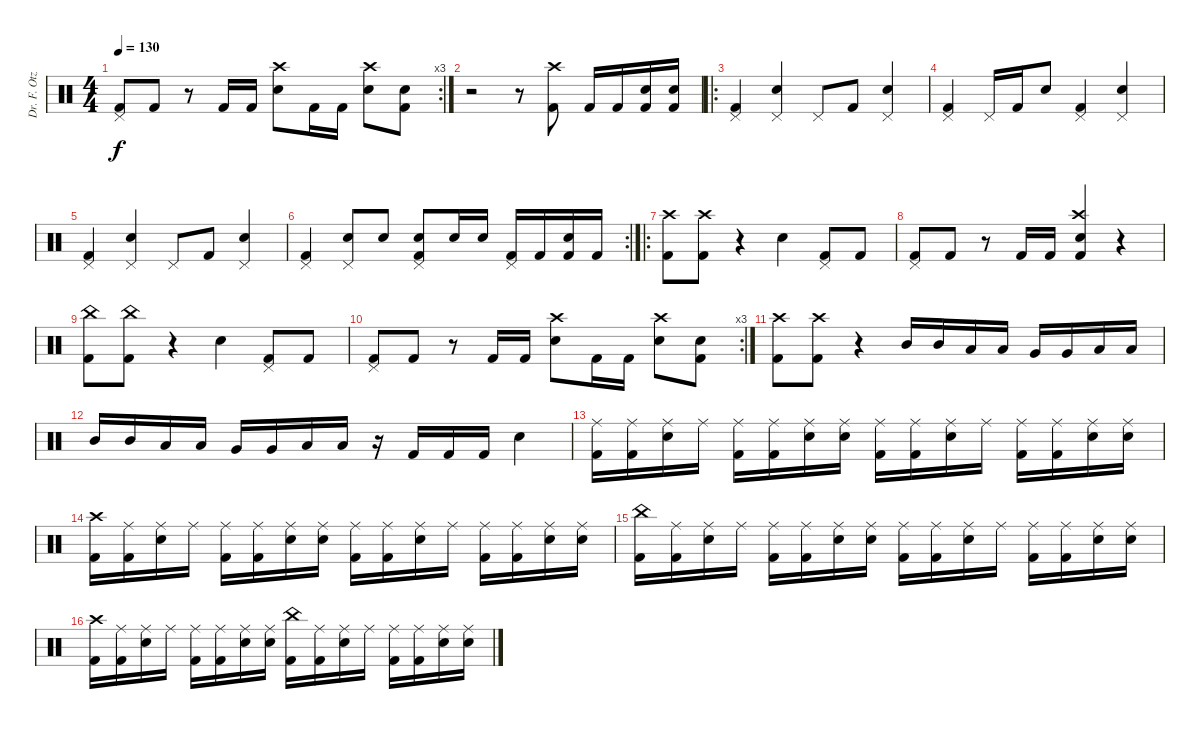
\track ("Dr. F. Otze" "Dr. F. Otz") {instrument percussion}
\staff {score}
\articulation defaults
\rc 3
\ts (4 4)
\tempo 130
\clef neutral
\ks c
("Pedal Hi-Hat (hit)" "Kick (hit) 2").8{dy f} "Kick (hit) 2".8 r.8 "Kick (hit) 2".16 "Kick (hit) 2".16 ("Crash high (hit)" "Electric Snare (hit)").8 "Kick (hit) 2".16 "Kick (hit) 2".16 ("Crash high (hit)" "Electric Snare (hit)").8 ("Electric Snare (hit)" "Kick (hit) 2").8 |
r.2 r.8 ("Crash high (hit)" "Kick (hit) 2").8 "Kick (hit) 2".16 "Kick (hit) 2".16 ("Snare (hit) 2" "Kick (hit) 2").16 ("Snare (hit) 2" "Kick (hit) 2").16 |
\ro
("Pedal Hi-Hat (hit)" "Kick (hit) 2").4 ("Pedal Hi-Hat (hit)" "Snare (hit) 2").4 "Pedal Hi-Hat (hit)".8 "Kick (hit) 2".8 ("Pedal Hi-Hat (hit)" "Snare (hit) 2").4 |
("Pedal Hi-Hat (hit)" "Kick (hit) 2").4 "Pedal Hi-Hat (hit)".16 "Kick (hit) 2".16 "Snare (hit) 2".8 ("Pedal Hi-Hat (hit)" "Kick (hit) 2").4 ("Pedal Hi-Hat (hit)" "Snare (hit) 2").4 |
("Pedal Hi-Hat (hit)" "Kick (hit) 2").4 ("Pedal Hi-Hat (hit)" "Snare (hit) 2").4 "Pedal Hi-Hat (hit)".8 "Kick (hit) 2".8 ("Pedal Hi-Hat (hit)" "Snare (hit) 2").4 |
\rc 2
("Pedal Hi-Hat (hit)" "Kick (hit) 2").4 ("Pedal Hi-Hat (hit)" "Snare (hit) 2").8 "Snare (hit) 2".8 ("Pedal Hi-Hat (hit)" "Snare (hit) 2" "Kick (hit) 2").8 "Snare (hit) 2".16 "Snare (hit) 2".16 ("Pedal Hi-Hat (hit)" "Kick (hit) 2").16 "Kick (hit) 2".16 ("Snare (hit) 2" "Kick (hit) 2").16 "Kick (hit) 2".16 |
\ro
("Crash high (hit)" "Kick (hit) 2").8 ("Crash high (hit)" "Kick (hit) 2").8 r.4 "Electric Snare (hit)".4 ("Pedal Hi-Hat (hit)" "Kick (hit) 2").8 "Kick (hit) 2".8 |
("Pedal Hi-Hat (hit)" "Kick (hit) 2").8 "Kick (hit) 2".8 r.8 "Kick (hit) 2".16 "Kick (hit) 2".16 ("Crash high (hit)" "Electric Snare (hit)" "Kick (hit) 2").4 r.4 |
("China (hit)" "Kick (hit) 2").8 ("China (hit)" "Kick (hit) 2").8 r.4 "Electric Snare (hit)".4 ("Pedal Hi-Hat (hit)" "Kick (hit) 2").8 "Kick (hit) 2".8 |
\rc 3
("Pedal Hi-Hat (hit)" "Kick (hit) 2").8 "Kick (hit) 2".8 r.8 "Kick (hit) 2".16 "Kick (hit) 2".16 ("Crash high (hit)" "Electric Snare (hit)").8 "Kick (hit) 2".16 "Kick (hit) 2".16 ("Crash high (hit)" "Electric Snare (hit)").8 ("Electric Snare (hit)" "Kick (hit) 2").8 |
("Crash high (hit)" "Kick (hit) 2").8 ("Crash high (hit)" "Kick (hit) 2").8 r.4 "Mid Tom (hit)".16 "Mid Tom (hit)".16 "Low Tom (hit)".16 "Low Tom (hit)".16 "Very Low Tom (hit)".16 "Very Low Tom (hit)".16 "Low Tom (hit)".16 "Low Tom (hit)".16 |
"Mid Tom (hit)".16 "Mid Tom (hit)".16 "Low Tom (hit)".16 "Low Tom (hit)".16 "Very Low Tom (hit)".16 "Very Low Tom (hit)".16 "Low Tom (hit)".16 "Low Tom (hit)".16 r.16 "Kick (hit) 2".16 "Kick (hit) 2".16 "Kick (hit) 2".16 "Electric Snare (hit)".4 |
("Ride (middle)" "Kick (hit) 2").16 ("Ride (middle)" "Kick (hit) 2").16 ("Ride (middle)" "Electric Snare (hit)").16 "Ride (middle)".16 ("Ride (middle)" "Kick (hit) 2").16 ("Ride (middle)" "Kick (hit) 2").16 ("Ride (middle)" "Electric Snare (hit)").16 ("Ride (middle)" "Electric Snare (hit)").16 ("Ride (middle)" "Kick (hit) 2").16 ("Ride (middle)" "Kick (hit) 2").16 ("Ride (middle)" "Electric Snare (hit)").16 "Ride (middle)".16 ("Ride (middle)" "Kick (hit) 2").16 ("Ride (middle)" "Kick (hit) 2").16 ("Ride (middle)" "Electric Snare (hit)").16 ("Ride (middle)" "Electric Snare (hit)").16 |
("Crash high (hit)" "Kick (hit) 2").16 ("Ride (middle)" "Kick (hit) 2").16 ("Ride (middle)" "Electric Snare (hit)").16 "Ride (middle)".16 ("Ride (middle)" "Kick (hit) 2").16 ("Ride (middle)" "Kick (hit) 2").16 ("Ride (middle)" "Electric Snare (hit)").16 ("Ride (middle)" "Electric Snare (hit)").16 ("Ride (middle)" "Kick (hit) 2").16 ("Ride (middle)" "Kick (hit) 2").16 ("Ride (middle)" "Electric Snare (hit)").16 "Ride (middle)".16 ("Ride (middle)" "Kick (hit) 2").16 ("Ride (middle)" "Kick (hit) 2").16 ("Ride (middle)" "Electric Snare (hit)").16 ("Ride (middle)" "Electric Snare (hit)").16 |
("China (hit)" "Kick (hit) 2").16 ("Ride (middle)" "Kick (hit) 2").16 ("Ride (middle)" "Electric Snare (hit)").16 "Ride (middle)".16 ("Ride (middle)" "Kick (hit) 2").16 ("Ride (middle)" "Kick (hit) 2").16 ("Ride (middle)" "Electric Snare (hit)").16 ("Ride (middle)" "Electric Snare (hit)").16 ("Ride (middle)" "Kick (hit) 2").16 ("Ride (middle)" "Kick (hit) 2").16 ("Ride (middle)" "Electric Snare (hit)").16 "Ride (middle)".16 ("Ride (middle)" "Kick (hit) 2").16 ("Ride (middle)" "Kick (hit) 2").16 ("Ride (middle)" "Electric Snare (hit)").16 ("Ride (middle)" "Electric Snare (hit)").16 |
("Crash high (hit)" "Kick (hit) 2").16 ("Ride (middle)" "Kick (hit) 2").16 ("Ride (middle)" "Electric Snare (hit)").16 "Ride (middle)".16 ("Ride (middle)" "Kick (hit) 2").16 ("Ride (middle)" "Kick (hit) 2").16 ("Ride (middle)" "Electric Snare (hit)").16 ("Ride (middle)" "Electric Snare (hit)").16 ("China (hit)" "Kick (hit) 2").16 ("Ride (middle)" "Kick (hit) 2").16 ("Ride (middle)" "Electric Snare (hit)").16 "Ride (middle)".16 ("Ride (middle)" "Kick (hit) 2").16 ("Ride (middle)" "Kick (hit) 2").16 ("Ride (middle)" "Electric Snare (hit)").16 ("Ride (middle)" "Electric Snare (hit)").16
